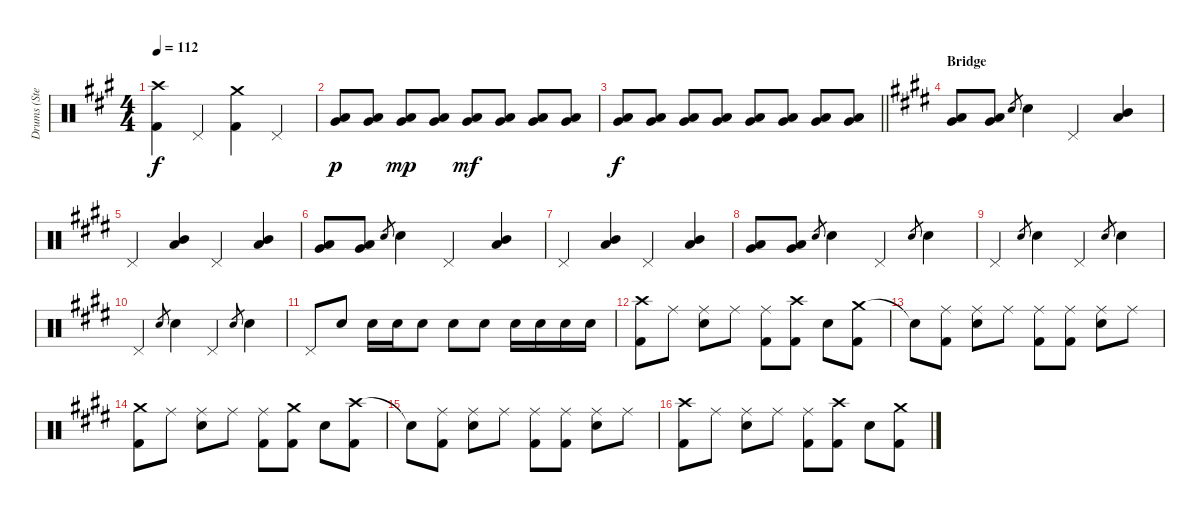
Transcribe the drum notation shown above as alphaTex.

\track ("Drums (Steven)" "Drums (Ste") {instrument percussion}
\staff {score}
\articulation defaults
\ts (4 4)
\tempo 112
\clef neutral
\ks f#minor
("Crash high (hit)" "Kick (hit) 2").4{dy f} "Pedal Hi-Hat (hit)".4 ("Crash medium (hit)" "Kick (hit) 2").4 "Pedal Hi-Hat (hit)".4 |
("Low Tom (hit)" "Very Low Tom (hit)").8{dy p} ("Low Tom (hit)" "Very Low Tom (hit)").8 ("Low Tom (hit)" "Very Low Tom (hit)").8{dy mp} ("Low Tom (hit)" "Very Low Tom (hit)").8 ("Low Tom (hit)" "Very Low Tom (hit)").8{dy mf} ("Low Tom (hit)" "Very Low Tom (hit)").8 ("Low Tom (hit)" "Very Low Tom (hit)").8 ("Low Tom (hit)" "Very Low Tom (hit)").8 |
\barLineRight lightlight
("Low Tom (hit)" "Very Low Tom (hit)").8{dy f} ("Low Tom (hit)" "Very Low Tom (hit)").8 ("Low Tom (hit)" "Very Low Tom (hit)").8 ("Low Tom (hit)" "Very Low Tom (hit)").8 ("Low Tom (hit)" "Very Low Tom (hit)").8 ("Low Tom (hit)" "Very Low Tom (hit)").8 ("Low Tom (hit)" "Very Low Tom (hit)").8 ("Low Tom (hit)" "Very Low Tom (hit)").8 |
\section ("" "Bridge")
\ks e
("Low Tom (hit)" "Very Low Tom (hit)").8 ("Low Tom (hit)" "Very Low Tom (hit)").8 "Snare (hit) 2".8{gr} "Snare (hit) 2".4 "Pedal Hi-Hat (hit)".4 ("Mid Tom (hit)" "Low Tom (hit)").4 |
"Pedal Hi-Hat (hit)".4 ("Mid Tom (hit)" "Low Tom (hit)").4 "Pedal Hi-Hat (hit)".4 ("Mid Tom (hit)" "Low Tom (hit)").4 |
("Low Tom (hit)" "Very Low Tom (hit)").8 ("Low Tom (hit)" "Very Low Tom (hit)").8 "Snare (hit) 2".8{gr} "Snare (hit) 2".4 "Pedal Hi-Hat (hit)".4 ("Mid Tom (hit)" "Low Tom (hit)").4 |
"Pedal Hi-Hat (hit)".4 ("Mid Tom (hit)" "Low Tom (hit)").4 "Pedal Hi-Hat (hit)".4 ("Mid Tom (hit)" "Low Tom (hit)").4 |
("Low Tom (hit)" "Very Low Tom (hit)").8 ("Low Tom (hit)" "Very Low Tom (hit)").8 "Snare (hit) 2".8{gr} "Snare (hit) 2".4 "Pedal Hi-Hat (hit)".4 "Snare (hit) 2".8{gr} "Snare (hit) 2".4 |
"Pedal Hi-Hat (hit)".4 "Snare (hit) 2".8{gr} "Snare (hit) 2".4 "Pedal Hi-Hat (hit)".4 "Snare (hit) 2".8{gr} "Snare (hit) 2".4 |
"Pedal Hi-Hat (hit)".4 "Snare (hit) 2".8{gr} "Snare (hit) 2".4 "Pedal Hi-Hat (hit)".4 "Snare (hit) 2".8{gr} "Snare (hit) 2".4 |
"Pedal Hi-Hat (hit)".8 "Snare (hit) 2".8 "Snare (hit) 2".16 "Snare (hit) 2".16 "Snare (hit) 2".8 "Snare (hit) 2".8 "Snare (hit) 2".8 "Snare (hit) 2".16 "Snare (hit) 2".16 "Snare (hit) 2".16 "Snare (hit) 2".16 |
("Crash high (hit)" "Kick (hit) 2").8 "Ride (middle)".8 ("Ride (middle)" "Snare (hit) 2").8 "Ride (middle)".8 ("Ride (middle)" "Kick (hit) 2").8 ("Crash high (hit)" "Kick (hit) 2").8 "Snare (hit) 2".8 ("Crash medium (hit)" "Kick (hit) 2").8 |
"Snare (hit)"{t}.8 ("Ride (middle)" "Kick (hit) 2").8 ("Ride (middle)" "Snare (hit) 2").8 "Ride (middle)".8 ("Ride (middle)" "Kick (hit) 2").8 ("Ride (middle)" "Kick (hit) 2").8 ("Ride (middle)" "Snare (hit) 2").8 "Ride (middle)".8 |
("Crash medium (hit)" "Kick (hit) 2").8 "Ride (middle)".8 ("Ride (middle)" "Snare (hit) 2").8 "Ride (middle)".8 ("Ride (middle)" "Kick (hit) 2").8 ("Crash medium (hit)" "Kick (hit) 2").8 "Snare (hit) 2".8 ("Crash high (hit)" "Kick (hit) 2").8 |
"Snare (hit)"{t}.8 ("Ride (middle)" "Kick (hit) 2").8 ("Ride (middle)" "Snare (hit) 2").8 "Ride (middle)".8 ("Ride (middle)" "Kick (hit) 2").8 ("Ride (middle)" "Kick (hit) 2").8 ("Ride (middle)" "Snare (hit) 2").8 "Ride (middle)".8 |
("Crash high (hit)" "Kick (hit) 2").8 "Ride (middle)".8 ("Ride (middle)" "Snare (hit) 2").8 "Ride (middle)".8 ("Ride (middle)" "Kick (hit) 2").8 ("Crash high (hit)" "Kick (hit) 2").8 "Snare (hit) 2".8 ("Crash medium (hit)" "Kick (hit) 2").8
